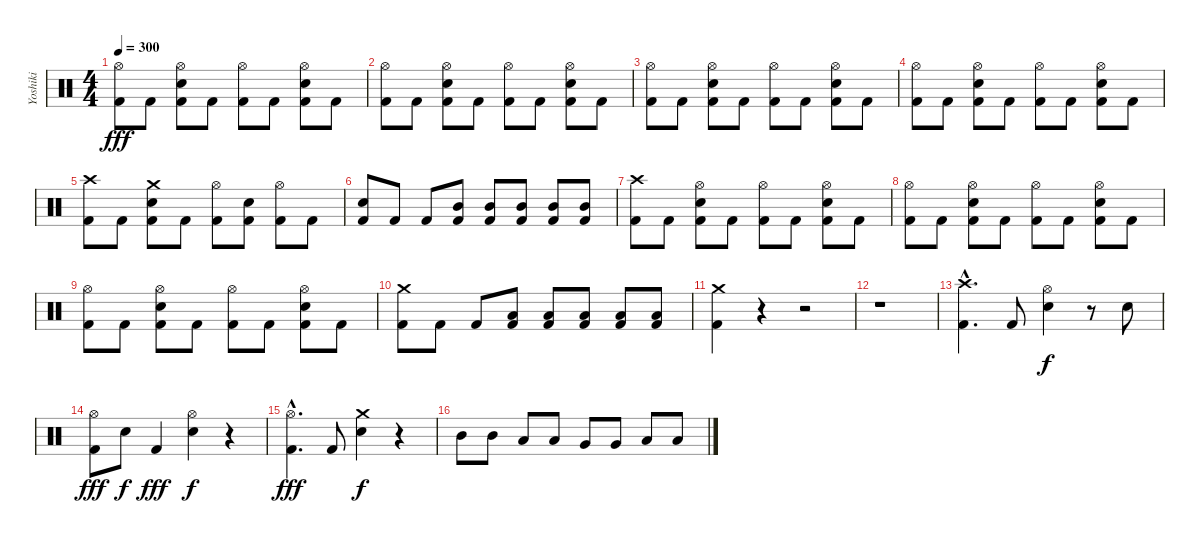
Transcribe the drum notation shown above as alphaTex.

\track ("Yoshiki" "Yoshiki") {instrument percussion}
\staff {score}
\articulation defaults
\ts (4 4)
\tempo 300
\clef neutral
\ks c
("Hi-Hat (open)" "Kick (hit) 2").8{dy fff} "Kick (hit) 2".8 ("Hi-Hat (open)" "Snare (hit) 2" "Kick (hit) 2").8 "Kick (hit) 2".8 ("Hi-Hat (open)" "Kick (hit) 2").8 "Kick (hit) 2".8 ("Hi-Hat (open)" "Snare (hit) 2" "Kick (hit) 2").8 "Kick (hit) 2".8 |
("Hi-Hat (open)" "Kick (hit) 2").8 "Kick (hit) 2".8 ("Hi-Hat (open)" "Snare (hit) 2" "Kick (hit) 2").8 "Kick (hit) 2".8 ("Hi-Hat (open)" "Kick (hit) 2").8 "Kick (hit) 2".8 ("Hi-Hat (open)" "Snare (hit) 2" "Kick (hit) 2").8 "Kick (hit) 2".8 |
("Hi-Hat (open)" "Kick (hit) 2").8 "Kick (hit) 2".8 ("Hi-Hat (open)" "Snare (hit) 2" "Kick (hit) 2").8 "Kick (hit) 2".8 ("Hi-Hat (open)" "Kick (hit) 2").8 "Kick (hit) 2".8 ("Hi-Hat (open)" "Snare (hit) 2" "Kick (hit) 2").8 "Kick (hit) 2".8 |
("Hi-Hat (open)" "Kick (hit) 2").8 "Kick (hit) 2".8 ("Hi-Hat (open)" "Snare (hit) 2" "Kick (hit) 2").8 "Kick (hit) 2".8 ("Hi-Hat (open)" "Kick (hit) 2").8 "Kick (hit) 2".8 ("Hi-Hat (open)" "Snare (hit) 2" "Kick (hit) 2").8 "Kick (hit) 2".8 |
("Crash high (hit)" "Kick (hit) 2").8 "Kick (hit) 2".8 ("Crash medium (hit)" "Snare (hit) 2" "Kick (hit) 2").8 "Kick (hit) 2".8 ("Hi-Hat (open)" "Kick (hit) 2").8 ("Snare (hit) 2" "Kick (hit) 2").8 ("Hi-Hat (open)" "Kick (hit) 2").8 "Kick (hit) 2".8 |
("Snare (hit) 2" "Kick (hit) 2").8 "Kick (hit) 2".8 "Kick (hit) 2".8 ("Mid Tom (hit)" "Kick (hit) 2").8 ("Mid Tom (hit)" "Kick (hit) 2").8 ("Mid Tom (hit)" "Kick (hit) 2").8 ("Mid Tom (hit)" "Kick (hit) 2").8 ("Mid Tom (hit)" "Kick (hit) 2").8 |
("Crash high (hit)" "Kick (hit) 2").8 "Kick (hit) 2".8 ("Hi-Hat (open)" "Snare (hit) 2" "Kick (hit) 2").8 "Kick (hit) 2".8 ("Hi-Hat (open)" "Kick (hit) 2").8 "Kick (hit) 2".8 ("Hi-Hat (open)" "Snare (hit) 2" "Kick (hit) 2").8 "Kick (hit) 2".8 |
("Hi-Hat (open)" "Kick (hit) 2").8 "Kick (hit) 2".8 ("Hi-Hat (open)" "Snare (hit) 2" "Kick (hit) 2").8 "Kick (hit) 2".8 ("Hi-Hat (open)" "Kick (hit) 2").8 "Kick (hit) 2".8 ("Hi-Hat (open)" "Snare (hit) 2" "Kick (hit) 2").8 "Kick (hit) 2".8 |
("Hi-Hat (open)" "Kick (hit) 2").8 "Kick (hit) 2".8 ("Hi-Hat (open)" "Snare (hit) 2" "Kick (hit) 2").8 "Kick (hit) 2".8 ("Hi-Hat (open)" "Kick (hit) 2").8 "Kick (hit) 2".8 ("Hi-Hat (open)" "Snare (hit) 2" "Kick (hit) 2").8 "Kick (hit) 2".8 |
("Crash medium (hit)" "Kick (hit) 2").8 "Kick (hit) 2".8 "Kick (hit) 2".8 ("Low Floor Tom (hit)" "Kick (hit) 2").8 ("Low Floor Tom (hit)" "Kick (hit) 2").8 ("Low Floor Tom (hit)" "Kick (hit) 2").8 ("Low Floor Tom (hit)" "Kick (hit) 2").8 ("Low Floor Tom (hit)" "Kick (hit) 2").8 |
("Crash medium (hit)" "Kick (hit) 2").4 r.4 r.2 |
r.1 |
("Crash high (hit)"{hac} "Kick (hit) 2"{hac}).4{d} "Kick (hit) 2".8 ("Hi-Hat (open)" "Snare (hit) 2").4{dy f} r.8 "Snare (hit) 2".8 |
("Hi-Hat (open)" "Kick (hit) 2").8{dy fff} "Snare (hit) 2".8{dy f} "Kick (hit) 2".4{dy fff} ("Hi-Hat (open)" "Snare (hit) 2").4{dy f} r.4 |
("Hi-Hat (open)"{hac} "Kick (hit) 2"{hac}).4{d dy fff} "Kick (hit) 2".8 ("Crash medium (hit)" "Snare (hit) 2").4{dy f} r.4 |
"Mid Tom (hit)".8 "Mid Tom (hit)".8 "Low Tom (hit)".8 "Low Tom (hit)".8 "Very Low Tom (hit)".8 "Very Low Tom (hit)".8 "Low Floor Tom (hit)".8 "Low Floor Tom (hit)".8
